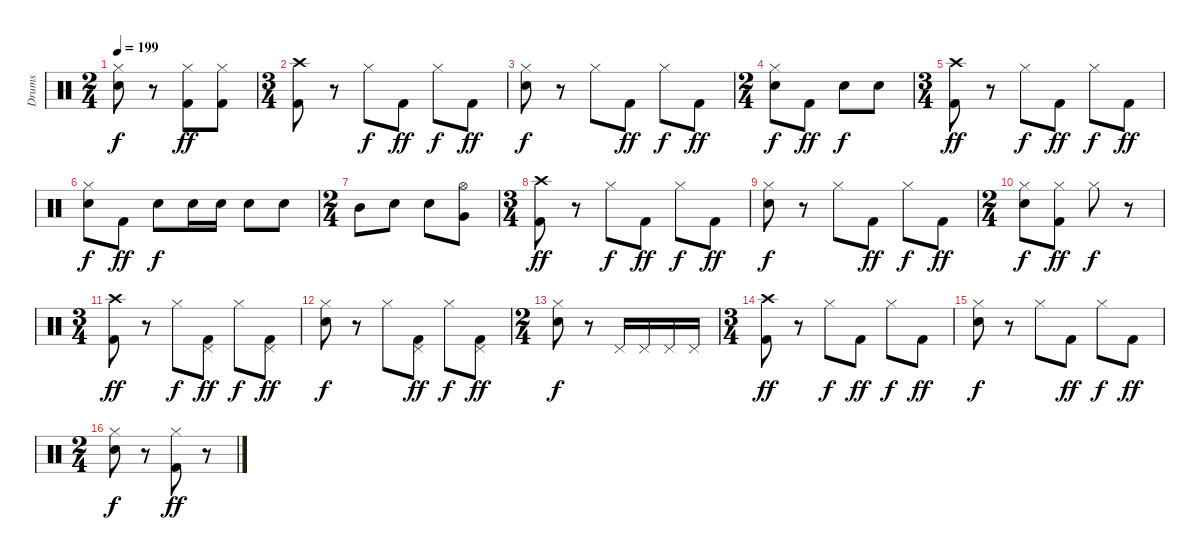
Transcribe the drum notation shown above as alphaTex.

\track ("Drums" "Drums") {instrument percussion}
\staff {score}
\articulation defaults
\ts (2 4)
\tempo 199
\clef neutral
\ks c
("Hi-Hat (closed)" "Electric Snare (hit)").8{dy f} r.8 ("Hi-Hat (closed)" "Kick (hit) 2").8{dy ff} ("Hi-Hat (closed)" "Kick (hit) 2").8 |
\ts (3 4)
("Crash high (hit)" "Kick (hit) 2").8 r.8 "Hi-Hat (closed)".8{dy f} "Kick (hit) 2".8{dy ff} "Hi-Hat (closed)".8{dy f} "Kick (hit) 2".8{dy ff} |
("Hi-Hat (closed)" "Electric Snare (hit)").8{dy f} r.8 "Hi-Hat (closed)".8 "Kick (hit) 2".8{dy ff} "Hi-Hat (closed)".8{dy f} "Kick (hit) 2".8{dy ff} |
\ts (2 4)
("Hi-Hat (closed)" "Electric Snare (hit)").8{dy f} "Kick (hit) 2".8{dy ff} "Electric Snare (hit)".8{dy f} "Electric Snare (hit)".8 |
\ts (3 4)
("Crash high (hit)" "Kick (hit) 2").8{dy ff} r.8 "Hi-Hat (closed)".8{dy f} "Kick (hit) 2".8{dy ff} "Hi-Hat (closed)".8{dy f} "Kick (hit) 2".8{dy ff} |
("Hi-Hat (closed)" "Electric Snare (hit)").8{dy f} "Kick (hit) 2".8{dy ff} "Electric Snare (hit)".8{dy f} "Electric Snare (hit)".16 "Electric Snare (hit)".16 "Electric Snare (hit)".8 "Electric Snare (hit)".8 |
\ts (2 4)
"Mid Tom (hit)".8 "Electric Snare (hit)".8 "Electric Snare (hit)".8 ("Hi-Hat (open)" "Very Low Tom (hit)").8 |
\ts (3 4)
("Crash high (hit)" "Kick (hit) 2").8{dy ff} r.8 "Hi-Hat (closed)".8{dy f} "Kick (hit) 2".8{dy ff} "Hi-Hat (closed)".8{dy f} "Kick (hit) 2".8{dy ff} |
("Hi-Hat (closed)" "Electric Snare (hit)").8{dy f} r.8 "Hi-Hat (closed)".8 "Kick (hit) 2".8{dy ff} "Hi-Hat (closed)".8{dy f} "Kick (hit) 2".8{dy ff} |
\ts (2 4)
("Hi-Hat (closed)" "Electric Snare (hit)").8{dy f} ("Hi-Hat (closed)" "Kick (hit) 2").8{dy ff} "Hi-Hat (closed)".8{dy f} r.8 |
\ts (3 4)
("Crash high (hit)" "Kick (hit) 2").8{dy ff} r.8 "Hi-Hat (closed)".8{dy f} ("Pedal Hi-Hat (hit)" "Kick (hit) 2").8{dy ff} "Hi-Hat (closed)".8{dy f} ("Pedal Hi-Hat (hit)" "Kick (hit) 2").8{dy ff} |
("Hi-Hat (closed)" "Electric Snare (hit)").8{dy f} r.8 "Hi-Hat (closed)".8 ("Pedal Hi-Hat (hit)" "Kick (hit) 2").8{dy ff} "Hi-Hat (closed)".8{dy f} ("Pedal Hi-Hat (hit)" "Kick (hit) 2").8{dy ff} |
\ts (2 4)
("Hi-Hat (closed)" "Electric Snare (hit)").8{dy f} r.8 "Pedal Hi-Hat (hit)".16 "Pedal Hi-Hat (hit)".16 "Pedal Hi-Hat (hit)".16 "Pedal Hi-Hat (hit)".16 |
\ts (3 4)
("Crash high (hit)" "Kick (hit) 2").8{dy ff} r.8 "Hi-Hat (closed)".8{dy f} "Kick (hit) 2".8{dy ff} "Hi-Hat (closed)".8{dy f} "Kick (hit) 2".8{dy ff} |
("Hi-Hat (closed)" "Electric Snare (hit)").8{dy f} r.8 "Hi-Hat (closed)".8 "Kick (hit) 2".8{dy ff} "Hi-Hat (closed)".8{dy f} "Kick (hit) 2".8{dy ff} |
\ts (2 4)
("Hi-Hat (closed)" "Electric Snare (hit)").8{dy f} r.8 ("Hi-Hat (closed)" "Kick (hit) 2").8{dy ff} r.8
